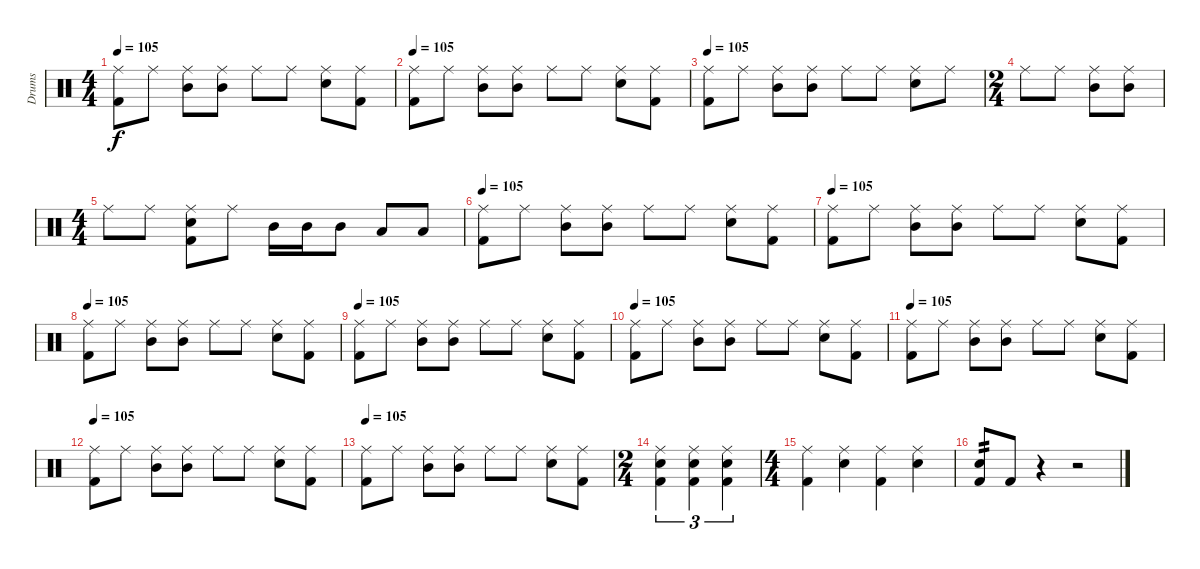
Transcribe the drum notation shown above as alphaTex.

\track ("Drums" "Drums") {instrument percussion}
\staff {score}
\articulation defaults
\ts (4 4)
\tempo 105
\clef neutral
\ks c
("Ride (middle)" "Kick (hit) 2").8{dy f} "Ride (middle)".8 ("Ride (middle)" "Mid Tom (hit)").8 ("Ride (middle)" "Mid Tom (hit)").8 "Ride (middle)".8 "Ride (middle)".8 ("Ride (middle)" "Snare (hit) 2").8 ("Ride (middle)" "Kick (hit) 2").8 |
\tempo 105
("Ride (middle)" "Kick (hit) 2").8 "Ride (middle)".8 ("Ride (middle)" "Mid Tom (hit)").8 ("Ride (middle)" "Mid Tom (hit)").8 "Ride (middle)".8 "Ride (middle)".8 ("Ride (middle)" "Snare (hit) 2").8 ("Ride (middle)" "Kick (hit) 2").8 |
\tempo 105
("Ride (middle)" "Kick (hit) 2").8 "Ride (middle)".8 ("Ride (middle)" "Mid Tom (hit)").8 ("Ride (middle)" "Mid Tom (hit)").8 "Ride (middle)".8 "Ride (middle)".8 ("Ride (middle)" "Snare (hit) 2").8 "Ride (middle)".8 |
\ts (2 4)
"Ride (middle)".8 "Ride (middle)".8 ("Ride (middle)" "Mid Tom (hit)").8 ("Ride (middle)" "Mid Tom (hit)").8 |
\ts (4 4)
"Ride (middle)".8 "Ride (middle)".8 ("Ride (middle)" "Snare (hit) 2" "Kick (hit) 2").8 "Ride (middle)".8 "Mid Tom (hit)".16 "Mid Tom (hit)".16 "Mid Tom (hit)".8 "Low Floor Tom (hit)".8 "Low Floor Tom (hit)".8 |
\tempo 105
("Ride (middle)" "Kick (hit) 2").8 "Ride (middle)".8 ("Ride (middle)" "Mid Tom (hit)").8 ("Ride (middle)" "Mid Tom (hit)").8 "Ride (middle)".8 "Ride (middle)".8 ("Ride (middle)" "Snare (hit) 2").8 ("Ride (middle)" "Kick (hit) 2").8 |
\tempo 105
("Ride (middle)" "Kick (hit) 2").8 "Ride (middle)".8 ("Ride (middle)" "Mid Tom (hit)").8 ("Ride (middle)" "Mid Tom (hit)").8 "Ride (middle)".8 "Ride (middle)".8 ("Ride (middle)" "Snare (hit) 2").8 ("Ride (middle)" "Kick (hit) 2").8 |
\tempo 105
("Ride (middle)" "Kick (hit) 2").8 "Ride (middle)".8 ("Ride (middle)" "Mid Tom (hit)").8 ("Ride (middle)" "Mid Tom (hit)").8 "Ride (middle)".8 "Ride (middle)".8 ("Ride (middle)" "Snare (hit) 2").8 ("Ride (middle)" "Kick (hit) 2").8 |
\tempo 105
("Ride (middle)" "Kick (hit) 2").8 "Ride (middle)".8 ("Ride (middle)" "Mid Tom (hit)").8 ("Ride (middle)" "Mid Tom (hit)").8 "Ride (middle)".8 "Ride (middle)".8 ("Ride (middle)" "Snare (hit) 2").8 ("Ride (middle)" "Kick (hit) 2").8 |
\tempo 105
("Ride (middle)" "Kick (hit) 2").8 "Ride (middle)".8 ("Ride (middle)" "Mid Tom (hit)").8 ("Ride (middle)" "Mid Tom (hit)").8 "Ride (middle)".8 "Ride (middle)".8 ("Ride (middle)" "Snare (hit) 2").8 ("Ride (middle)" "Kick (hit) 2").8 |
\tempo 105
("Ride (middle)" "Kick (hit) 2").8 "Ride (middle)".8 ("Ride (middle)" "Mid Tom (hit)").8 ("Ride (middle)" "Mid Tom (hit)").8 "Ride (middle)".8 "Ride (middle)".8 ("Ride (middle)" "Snare (hit) 2").8 ("Ride (middle)" "Kick (hit) 2").8 |
\tempo 105
("Ride (middle)" "Kick (hit) 2").8 "Ride (middle)".8 ("Ride (middle)" "Mid Tom (hit)").8 ("Ride (middle)" "Mid Tom (hit)").8 "Ride (middle)".8 "Ride (middle)".8 ("Ride (middle)" "Snare (hit) 2").8 ("Ride (middle)" "Kick (hit) 2").8 |
\tempo 105
("Ride (middle)" "Kick (hit) 2").8 "Ride (middle)".8 ("Ride (middle)" "Mid Tom (hit)").8 ("Ride (middle)" "Mid Tom (hit)").8 "Ride (middle)".8 "Ride (middle)".8 ("Ride (middle)" "Snare (hit) 2").8 ("Ride (middle)" "Kick (hit) 2").8 |
\ts (2 4)
("Ride (middle)" "Snare (hit) 2" "Kick (hit) 2").4{tu (3 2)} ("Ride (middle)" "Snare (hit) 2" "Kick (hit) 2").4{tu (3 2)} ("Ride (middle)" "Snare (hit) 2" "Kick (hit) 2").4{tu (3 2)} |
\ts (4 4)
("Ride (middle)" "Kick (hit) 2").4 ("Ride (middle)" "Snare (hit) 2").4 ("Ride (middle)" "Kick (hit) 2").4 ("Ride (middle)" "Snare (hit) 2").4 |
("Snare (hit) 2" "Kick (hit) 2").8{tp 2} "Kick (hit) 2".8 r.4 r.2
